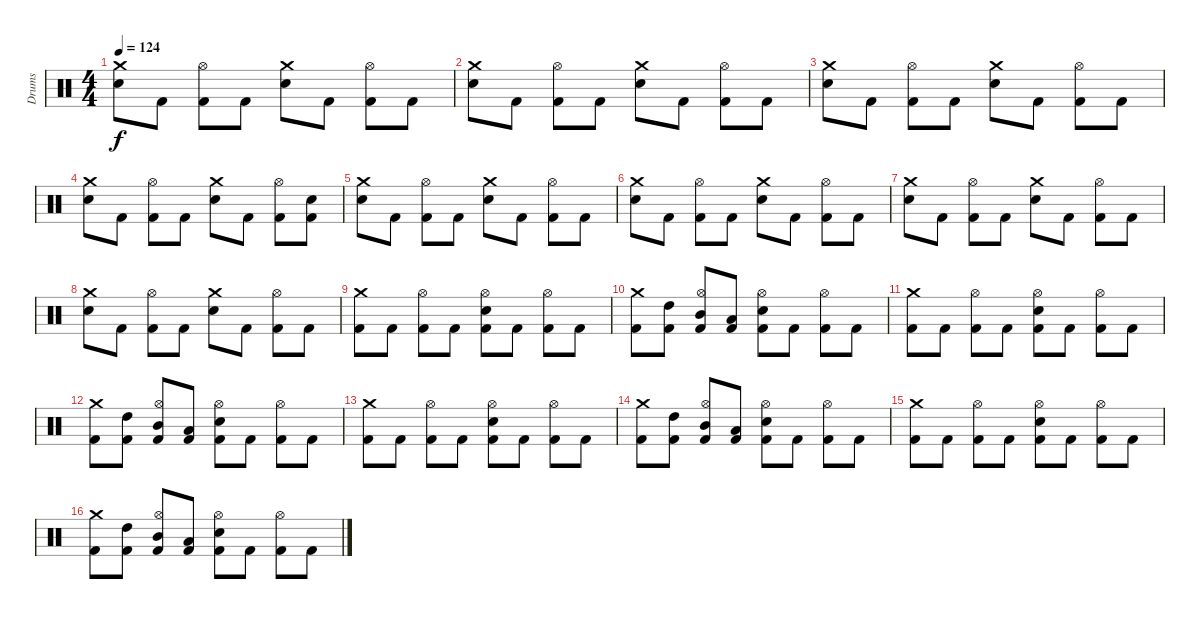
\track ("Drums" "Drums") {instrument percussion}
\staff {score}
\articulation defaults
\ts (4 4)
\tempo 124
\clef neutral
\ks c
("Crash medium (hit)" "Electric Snare (hit)").8{dy f} "Kick (hit) 2".8 ("Hi-Hat (open)" "Kick (hit) 2").8 "Kick (hit) 2".8 ("Crash medium (hit)" "Electric Snare (hit)").8 "Kick (hit) 2".8 ("Hi-Hat (open)" "Kick (hit) 2").8 "Kick (hit) 2".8 |
("Crash medium (hit)" "Electric Snare (hit)").8 "Kick (hit) 2".8 ("Hi-Hat (open)" "Kick (hit) 2").8 "Kick (hit) 2".8 ("Crash medium (hit)" "Electric Snare (hit)").8 "Kick (hit) 2".8 ("Hi-Hat (open)" "Kick (hit) 2").8 "Kick (hit) 2".8 |
("Crash medium (hit)" "Electric Snare (hit)").8 "Kick (hit) 2".8 ("Hi-Hat (open)" "Kick (hit) 2").8 "Kick (hit) 2".8 ("Crash medium (hit)" "Electric Snare (hit)").8 "Kick (hit) 2".8 ("Hi-Hat (open)" "Kick (hit) 2").8 "Kick (hit) 2".8 |
("Crash medium (hit)" "Electric Snare (hit)").8 "Kick (hit) 2".8 ("Hi-Hat (open)" "Kick (hit) 2").8 "Kick (hit) 2".8 ("Crash medium (hit)" "Electric Snare (hit)").8 "Kick (hit) 2".8 ("Hi-Hat (open)" "Kick (hit) 2").8 ("Electric Snare (hit)" "Kick (hit) 2").8 |
("Crash medium (hit)" "Electric Snare (hit)").8 "Kick (hit) 2".8 ("Hi-Hat (open)" "Kick (hit) 2").8 "Kick (hit) 2".8 ("Crash medium (hit)" "Electric Snare (hit)").8 "Kick (hit) 2".8 ("Hi-Hat (open)" "Kick (hit) 2").8 "Kick (hit) 2".8 |
("Crash medium (hit)" "Electric Snare (hit)").8 "Kick (hit) 2".8 ("Hi-Hat (open)" "Kick (hit) 2").8 "Kick (hit) 2".8 ("Crash medium (hit)" "Electric Snare (hit)").8 "Kick (hit) 2".8 ("Hi-Hat (open)" "Kick (hit) 2").8 "Kick (hit) 2".8 |
("Crash medium (hit)" "Electric Snare (hit)").8 "Kick (hit) 2".8 ("Hi-Hat (open)" "Kick (hit) 2").8 "Kick (hit) 2".8 ("Crash medium (hit)" "Electric Snare (hit)").8 "Kick (hit) 2".8 ("Hi-Hat (open)" "Kick (hit) 2").8 "Kick (hit) 2".8 |
("Crash medium (hit)" "Electric Snare (hit)").8 "Kick (hit) 2".8 ("Hi-Hat (open)" "Kick (hit) 2").8 "Kick (hit) 2".8 ("Crash medium (hit)" "Electric Snare (hit)").8 "Kick (hit) 2".8 ("Hi-Hat (open)" "Kick (hit) 2").8 "Kick (hit) 2".8 |
("Crash medium (hit)" "Kick (hit) 2").8 "Kick (hit) 2".8 ("Hi-Hat (open)" "Kick (hit) 2").8 "Kick (hit) 2".8 ("Hi-Hat (open)" "Electric Snare (hit)" "Kick (hit) 2").8 "Kick (hit) 2".8 ("Hi-Hat (open)" "Kick (hit) 2").8 "Kick (hit) 2".8 |
("Crash medium (hit)" "Kick (hit) 2").8 ("High Tom (hit)" "Kick (hit) 2").8 ("Hi-Hat (open)" "Mid Tom (hit)" "Kick (hit) 2").8 ("Low Tom (hit)" "Kick (hit) 2").8 ("Hi-Hat (open)" "Electric Snare (hit)" "Kick (hit) 2").8 "Kick (hit) 2".8 ("Hi-Hat (open)" "Kick (hit) 2").8 "Kick (hit) 2".8 |
("Crash medium (hit)" "Kick (hit) 2").8 "Kick (hit) 2".8 ("Hi-Hat (open)" "Kick (hit) 2").8 "Kick (hit) 2".8 ("Hi-Hat (open)" "Electric Snare (hit)" "Kick (hit) 2").8 "Kick (hit) 2".8 ("Hi-Hat (open)" "Kick (hit) 2").8 "Kick (hit) 2".8 |
("Crash medium (hit)" "Kick (hit) 2").8 ("High Tom (hit)" "Kick (hit) 2").8 ("Hi-Hat (open)" "Mid Tom (hit)" "Kick (hit) 2").8 ("Low Tom (hit)" "Kick (hit) 2").8 ("Hi-Hat (open)" "Electric Snare (hit)" "Kick (hit) 2").8 "Kick (hit) 2".8 ("Hi-Hat (open)" "Kick (hit) 2").8 "Kick (hit) 2".8 |
("Crash medium (hit)" "Kick (hit) 2").8 "Kick (hit) 2".8 ("Hi-Hat (open)" "Kick (hit) 2").8 "Kick (hit) 2".8 ("Hi-Hat (open)" "Electric Snare (hit)" "Kick (hit) 2").8 "Kick (hit) 2".8 ("Hi-Hat (open)" "Kick (hit) 2").8 "Kick (hit) 2".8 |
("Crash medium (hit)" "Kick (hit) 2").8 ("High Tom (hit)" "Kick (hit) 2").8 ("Hi-Hat (open)" "Mid Tom (hit)" "Kick (hit) 2").8 ("Low Tom (hit)" "Kick (hit) 2").8 ("Hi-Hat (open)" "Electric Snare (hit)" "Kick (hit) 2").8 "Kick (hit) 2".8 ("Hi-Hat (open)" "Kick (hit) 2").8 "Kick (hit) 2".8 |
("Crash medium (hit)" "Kick (hit) 2").8 "Kick (hit) 2".8 ("Hi-Hat (open)" "Kick (hit) 2").8 "Kick (hit) 2".8 ("Hi-Hat (open)" "Electric Snare (hit)" "Kick (hit) 2").8 "Kick (hit) 2".8 ("Hi-Hat (open)" "Kick (hit) 2").8 "Kick (hit) 2".8 |
("Crash medium (hit)" "Kick (hit) 2").8 ("High Tom (hit)" "Kick (hit) 2").8 ("Hi-Hat (open)" "Mid Tom (hit)" "Kick (hit) 2").8 ("Low Tom (hit)" "Kick (hit) 2").8 ("Hi-Hat (open)" "Electric Snare (hit)" "Kick (hit) 2").8 "Kick (hit) 2".8 ("Hi-Hat (open)" "Kick (hit) 2").8 "Kick (hit) 2".8
